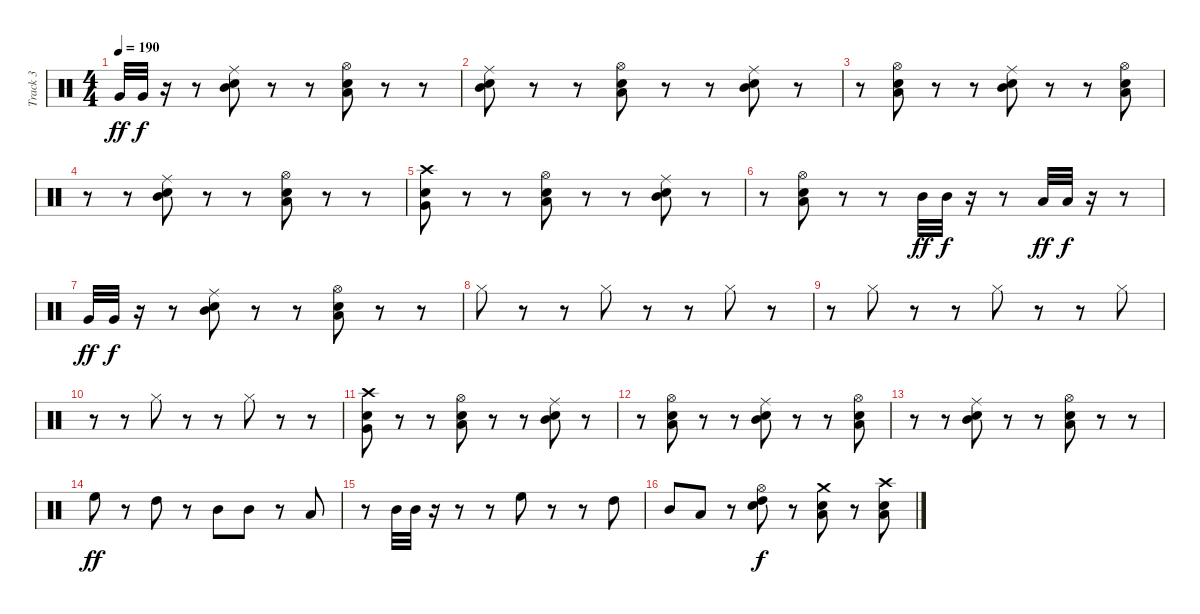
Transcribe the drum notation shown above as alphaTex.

\track ("Track 3" "Track 3") {instrument percussion}
\staff {score}
\articulation defaults
\ts (4 4)
\tempo 190
\clef neutral
\ks c "Very Low Tom (hit)".32{dy ff} "Very Low Tom (hit)".32{dy f}
r.16 r.8 ("Mid Tom (hit)" "Snare (hit) 2" "Ride (middle)").8 r.8 r.8 ("Low Tom (hit)" "Snare (hit) 2" "Hi-Hat (open)").8 r.8 r.8 |
("Mid Tom (hit)" "Snare (hit) 2" "Ride (middle)").8 r.8 r.8 ("Low Tom (hit)" "Snare (hit) 2" "Hi-Hat (open)").8 r.8 r.8 ("Mid Tom (hit)" "Snare (hit) 2" "Ride (middle)").8 r.8 |
r.8 ("Low Tom (hit)" "Snare (hit) 2" "Hi-Hat (open)").8 r.8 r.8 ("Mid Tom (hit)" "Snare (hit) 2" "Ride (middle)").8 r.8 r.8 ("Low Tom (hit)" "Snare (hit) 2" "Hi-Hat (open)").8 |
r.8 r.8 ("Mid Tom (hit)" "Snare (hit) 2" "Ride (middle)").8 r.8 r.8 ("Low Tom (hit)" "Snare (hit) 2" "Hi-Hat (open)").8 r.8 r.8 |
("Very Low Tom (hit)" "Snare (hit) 2" "Crash high (hit)").8 r.8 r.8 ("Low Tom (hit)" "Snare (hit) 2" "Hi-Hat (open)").8 r.8 r.8 ("Mid Tom (hit)" "Snare (hit) 2" "Ride (middle)").8 r.8 |
r.8 ("Low Tom (hit)" "Snare (hit) 2" "Hi-Hat (open)").8 r.8 r.8 "Mid Tom (hit)".32{dy ff} "Mid Tom (hit)".32{dy f} r.16 r.8 "Low Tom (hit)".32{dy ff} "Low Tom (hit)".32{dy f} r.16 r.8 |
"Very Low Tom (hit)".32{dy ff} "Very Low Tom (hit)".32{dy f} r.16 r.8 ("Mid Tom (hit)" "Snare (hit) 2" "Ride (middle)").8 r.8 r.8 ("Low Tom (hit)" "Snare (hit) 2" "Hi-Hat (open)").8 r.8 r.8 |
"Hi-Hat (closed)".8 r.8 r.8 "Hi-Hat (closed)".8 r.8 r.8 "Hi-Hat (closed)".8 r.8 |
r.8 "Hi-Hat (closed)".8 r.8 r.8 "Hi-Hat (closed)".8 r.8 r.8 "Hi-Hat (closed)".8 |
r.8 r.8 "Hi-Hat (closed)".8 r.8 r.8 "Hi-Hat (closed)".8 r.8 r.8 |
("Very Low Tom (hit)" "Snare (hit) 2" "Crash high (hit)").8 r.8 r.8 ("Low Tom (hit)" "Snare (hit) 2" "Hi-Hat (open)").8 r.8 r.8 ("Mid Tom (hit)" "Snare (hit) 2" "Ride (middle)").8 r.8 |
r.8 ("Low Tom (hit)" "Snare (hit) 2" "Hi-Hat (open)").8 r.8 r.8 ("Mid Tom (hit)" "Snare (hit) 2" "Ride (middle)").8 r.8 r.8 ("Low Tom (hit)" "Snare (hit) 2" "Hi-Hat (open)").8 |
r.8 r.8 ("Mid Tom (hit)" "Snare (hit) 2" "Ride (middle)").8 r.8 r.8 ("Low Tom (hit)" "Snare (hit) 2" "Hi-Hat (open)").8 r.8 r.8 |
"High Floor Tom (hit)".8{dy ff} r.8 "High Tom (hit)".8 r.8 "Mid Tom (hit)".8 "Mid Tom (hit)".8 r.8 "Low Tom (hit)".8 |
r.8 "Mid Tom (hit)".32 "Mid Tom (hit)".32 r.16 r.8 r.8 "High Floor Tom (hit)".8 r.8 r.8 "High Tom (hit)".8 |
"Mid Tom (hit)".8 "Low Tom (hit)".8 r.8 ("Electric Snare (hit)" "High Tom (hit)" "Hi-Hat (open)").8{dy f} r.8 ("Electric Snare (hit)" "Low Tom (hit)" "Crash medium (hit)").8 r.8 ("Low Tom (hit)" "Snare (hit) 2" "Crash high (hit)").8
